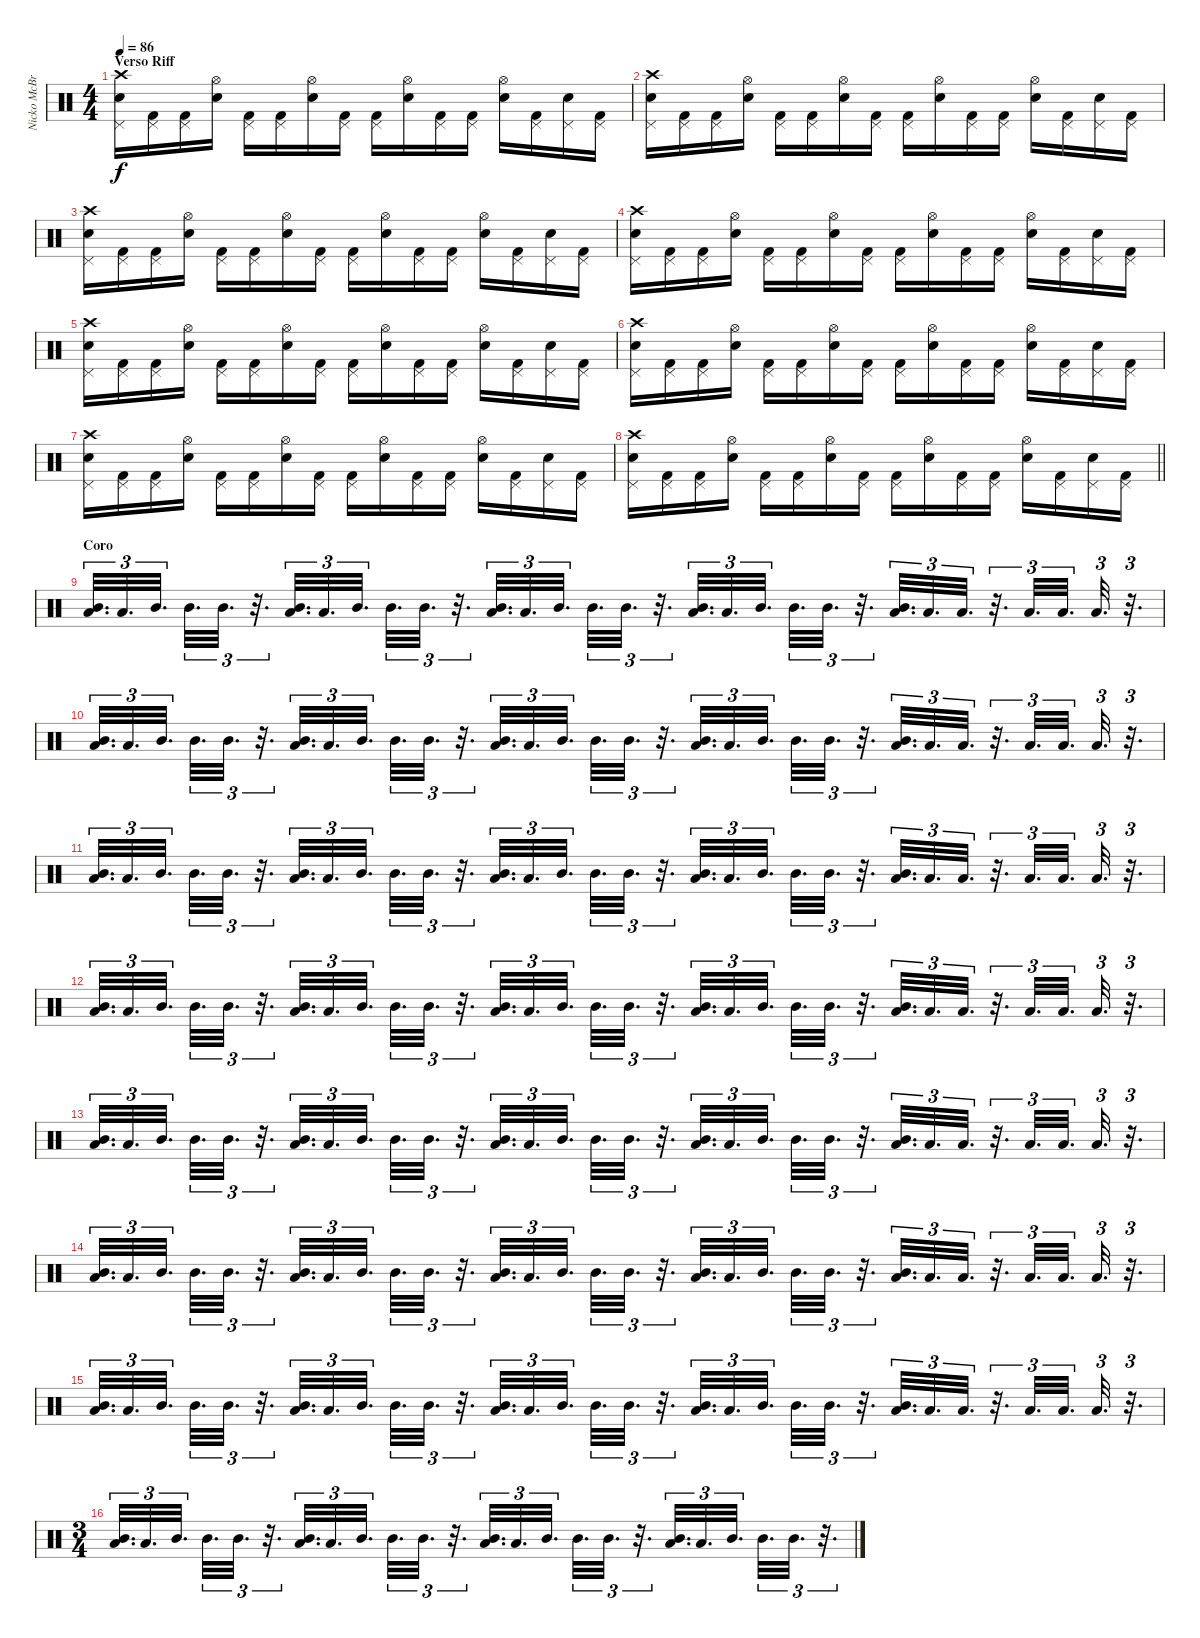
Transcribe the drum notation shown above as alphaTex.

\track ("Nicko McBrain" "Nicko McBr") {instrument percussion}
\staff {score}
\articulation defaults
\ts (4 4)
\section ("" "Verso Riff")
\tempo 86
\clef neutral
\ks c
("Snare (hit) 2" "Pedal Hi-Hat (hit)" "Crash high (hit)").16{dy f} ("Kick (hit) 2" "Pedal Hi-Hat (hit)").16 ("Kick (hit) 2" "Pedal Hi-Hat (hit)").16 ("Snare (hit) 2" "Hi-Hat (open)").16 ("Kick (hit) 2" "Pedal Hi-Hat (hit)").16 ("Kick (hit) 2" "Pedal Hi-Hat (hit)").16 ("Snare (hit) 2" "Hi-Hat (open)").16 ("Kick (hit) 2" "Pedal Hi-Hat (hit)").16 ("Kick (hit) 2" "Pedal Hi-Hat (hit)").16 ("Snare (hit) 2" "Hi-Hat (open)").16 ("Kick (hit) 2" "Pedal Hi-Hat (hit)").16 ("Kick (hit) 2" "Pedal Hi-Hat (hit)").16 ("Snare (hit) 2" "Hi-Hat (open)").16 ("Kick (hit) 2" "Pedal Hi-Hat (hit)").16 ("Snare (hit) 2" "Pedal Hi-Hat (hit)").16 ("Kick (hit) 2" "Pedal Hi-Hat (hit)").16 |
("Snare (hit) 2" "Pedal Hi-Hat (hit)" "Crash high (hit)").16 ("Kick (hit) 2" "Pedal Hi-Hat (hit)").16 ("Kick (hit) 2" "Pedal Hi-Hat (hit)").16 ("Snare (hit) 2" "Hi-Hat (open)").16 ("Kick (hit) 2" "Pedal Hi-Hat (hit)").16 ("Kick (hit) 2" "Pedal Hi-Hat (hit)").16 ("Snare (hit) 2" "Hi-Hat (open)").16 ("Kick (hit) 2" "Pedal Hi-Hat (hit)").16 ("Kick (hit) 2" "Pedal Hi-Hat (hit)").16 ("Snare (hit) 2" "Hi-Hat (open)").16 ("Kick (hit) 2" "Pedal Hi-Hat (hit)").16 ("Kick (hit) 2" "Pedal Hi-Hat (hit)").16 ("Snare (hit) 2" "Hi-Hat (open)").16 ("Kick (hit) 2" "Pedal Hi-Hat (hit)").16 ("Snare (hit) 2" "Pedal Hi-Hat (hit)").16 ("Kick (hit) 2" "Pedal Hi-Hat (hit)").16 |
("Snare (hit) 2" "Pedal Hi-Hat (hit)" "Crash high (hit)").16 ("Kick (hit) 2" "Pedal Hi-Hat (hit)").16 ("Kick (hit) 2" "Pedal Hi-Hat (hit)").16 ("Snare (hit) 2" "Hi-Hat (open)").16 ("Kick (hit) 2" "Pedal Hi-Hat (hit)").16 ("Kick (hit) 2" "Pedal Hi-Hat (hit)").16 ("Snare (hit) 2" "Hi-Hat (open)").16 ("Kick (hit) 2" "Pedal Hi-Hat (hit)").16 ("Kick (hit) 2" "Pedal Hi-Hat (hit)").16 ("Snare (hit) 2" "Hi-Hat (open)").16 ("Kick (hit) 2" "Pedal Hi-Hat (hit)").16 ("Kick (hit) 2" "Pedal Hi-Hat (hit)").16 ("Snare (hit) 2" "Hi-Hat (open)").16 ("Kick (hit) 2" "Pedal Hi-Hat (hit)").16 ("Snare (hit) 2" "Pedal Hi-Hat (hit)").16 ("Kick (hit) 2" "Pedal Hi-Hat (hit)").16 |
("Snare (hit) 2" "Pedal Hi-Hat (hit)" "Crash high (hit)").16 ("Kick (hit) 2" "Pedal Hi-Hat (hit)").16 ("Kick (hit) 2" "Pedal Hi-Hat (hit)").16 ("Snare (hit) 2" "Hi-Hat (open)").16 ("Kick (hit) 2" "Pedal Hi-Hat (hit)").16 ("Kick (hit) 2" "Pedal Hi-Hat (hit)").16 ("Snare (hit) 2" "Hi-Hat (open)").16 ("Kick (hit) 2" "Pedal Hi-Hat (hit)").16 ("Kick (hit) 2" "Pedal Hi-Hat (hit)").16 ("Snare (hit) 2" "Hi-Hat (open)").16 ("Kick (hit) 2" "Pedal Hi-Hat (hit)").16 ("Kick (hit) 2" "Pedal Hi-Hat (hit)").16 ("Snare (hit) 2" "Hi-Hat (open)").16 ("Kick (hit) 2" "Pedal Hi-Hat (hit)").16 ("Snare (hit) 2" "Pedal Hi-Hat (hit)").16 ("Kick (hit) 2" "Pedal Hi-Hat (hit)").16 |
("Snare (hit) 2" "Pedal Hi-Hat (hit)" "Crash high (hit)").16 ("Kick (hit) 2" "Pedal Hi-Hat (hit)").16 ("Kick (hit) 2" "Pedal Hi-Hat (hit)").16 ("Snare (hit) 2" "Hi-Hat (open)").16 ("Kick (hit) 2" "Pedal Hi-Hat (hit)").16 ("Kick (hit) 2" "Pedal Hi-Hat (hit)").16 ("Snare (hit) 2" "Hi-Hat (open)").16 ("Kick (hit) 2" "Pedal Hi-Hat (hit)").16 ("Kick (hit) 2" "Pedal Hi-Hat (hit)").16 ("Snare (hit) 2" "Hi-Hat (open)").16 ("Kick (hit) 2" "Pedal Hi-Hat (hit)").16 ("Kick (hit) 2" "Pedal Hi-Hat (hit)").16 ("Snare (hit) 2" "Hi-Hat (open)").16 ("Kick (hit) 2" "Pedal Hi-Hat (hit)").16 ("Snare (hit) 2" "Pedal Hi-Hat (hit)").16 ("Kick (hit) 2" "Pedal Hi-Hat (hit)").16 |
("Snare (hit) 2" "Pedal Hi-Hat (hit)" "Crash high (hit)").16 ("Kick (hit) 2" "Pedal Hi-Hat (hit)").16 ("Kick (hit) 2" "Pedal Hi-Hat (hit)").16 ("Snare (hit) 2" "Hi-Hat (open)").16 ("Kick (hit) 2" "Pedal Hi-Hat (hit)").16 ("Kick (hit) 2" "Pedal Hi-Hat (hit)").16 ("Snare (hit) 2" "Hi-Hat (open)").16 ("Kick (hit) 2" "Pedal Hi-Hat (hit)").16 ("Kick (hit) 2" "Pedal Hi-Hat (hit)").16 ("Snare (hit) 2" "Hi-Hat (open)").16 ("Kick (hit) 2" "Pedal Hi-Hat (hit)").16 ("Kick (hit) 2" "Pedal Hi-Hat (hit)").16 ("Snare (hit) 2" "Hi-Hat (open)").16 ("Kick (hit) 2" "Pedal Hi-Hat (hit)").16 ("Snare (hit) 2" "Pedal Hi-Hat (hit)").16 ("Kick (hit) 2" "Pedal Hi-Hat (hit)").16 |
("Snare (hit) 2" "Pedal Hi-Hat (hit)" "Crash high (hit)").16 ("Kick (hit) 2" "Pedal Hi-Hat (hit)").16 ("Kick (hit) 2" "Pedal Hi-Hat (hit)").16 ("Snare (hit) 2" "Hi-Hat (open)").16 ("Kick (hit) 2" "Pedal Hi-Hat (hit)").16 ("Kick (hit) 2" "Pedal Hi-Hat (hit)").16 ("Snare (hit) 2" "Hi-Hat (open)").16 ("Kick (hit) 2" "Pedal Hi-Hat (hit)").16 ("Kick (hit) 2" "Pedal Hi-Hat (hit)").16 ("Snare (hit) 2" "Hi-Hat (open)").16 ("Kick (hit) 2" "Pedal Hi-Hat (hit)").16 ("Kick (hit) 2" "Pedal Hi-Hat (hit)").16 ("Snare (hit) 2" "Hi-Hat (open)").16 ("Kick (hit) 2" "Pedal Hi-Hat (hit)").16 ("Snare (hit) 2" "Pedal Hi-Hat (hit)").16 ("Kick (hit) 2" "Pedal Hi-Hat (hit)").16 |
\barLineRight lightlight
("Snare (hit) 2" "Pedal Hi-Hat (hit)" "Crash high (hit)").16 ("Kick (hit) 2" "Pedal Hi-Hat (hit)").16 ("Kick (hit) 2" "Pedal Hi-Hat (hit)").16 ("Snare (hit) 2" "Hi-Hat (open)").16 ("Kick (hit) 2" "Pedal Hi-Hat (hit)").16 ("Kick (hit) 2" "Pedal Hi-Hat (hit)").16 ("Snare (hit) 2" "Hi-Hat (open)").16 ("Kick (hit) 2" "Pedal Hi-Hat (hit)").16 ("Kick (hit) 2" "Pedal Hi-Hat (hit)").16 ("Snare (hit) 2" "Hi-Hat (open)").16 ("Kick (hit) 2" "Pedal Hi-Hat (hit)").16 ("Kick (hit) 2" "Pedal Hi-Hat (hit)").16 ("Snare (hit) 2" "Hi-Hat (open)").16 ("Kick (hit) 2" "Pedal Hi-Hat (hit)").16 ("Snare (hit) 2" "Pedal Hi-Hat (hit)").16 ("Kick (hit) 2" "Pedal Hi-Hat (hit)").16 |
\section ("" "Coro")
("Mid Tom (hit)" "Low Tom (hit)").32{d tu (3 2)} "Low Tom (hit)".32{d tu (3 2)} "Mid Tom (hit)".32{d tu (3 2)} "Mid Tom (hit)".32{d tu (3 2)} "Mid Tom (hit)".32{d tu (3 2)} r.32{d tu (3 2)} ("Mid Tom (hit)" "Low Tom (hit)").32{d tu (3 2)} "Low Tom (hit)".32{d tu (3 2)} "Mid Tom (hit)".32{d tu (3 2)} "Mid Tom (hit)".32{d tu (3 2)} "Mid Tom (hit)".32{d tu (3 2)} r.32{d tu (3 2)} ("Mid Tom (hit)" "Low Tom (hit)").32{d tu (3 2)} "Low Tom (hit)".32{d tu (3 2)} "Mid Tom (hit)".32{d tu (3 2)} "Mid Tom (hit)".32{d tu (3 2)} "Mid Tom (hit)".32{d tu (3 2)} r.32{d tu (3 2)} ("Mid Tom (hit)" "Low Tom (hit)").32{d tu (3 2)} "Low Tom (hit)".32{d tu (3 2)} "Mid Tom (hit)".32{d tu (3 2)} "Mid Tom (hit)".32{d tu (3 2)} "Mid Tom (hit)".32{d tu (3 2)} r.32{d tu (3 2)} ("Mid Tom (hit)" "Low Tom (hit)").32{d tu (3 2)} "Low Tom (hit)".32{d tu (3 2)} "Low Tom (hit)".32{d tu (3 2)} r.32{d tu (3 2)} "Low Tom (hit)".32{d tu (3 2)} "Low Tom (hit)".32{d tu (3 2)} "Low Tom (hit)".32{d tu (3 2)} r.32{d tu (3 2)} |
("Mid Tom (hit)" "Low Tom (hit)").32{d tu (3 2)} "Low Tom (hit)".32{d tu (3 2)} "Mid Tom (hit)".32{d tu (3 2)} "Mid Tom (hit)".32{d tu (3 2)} "Mid Tom (hit)".32{d tu (3 2)} r.32{d tu (3 2)} ("Mid Tom (hit)" "Low Tom (hit)").32{d tu (3 2)} "Low Tom (hit)".32{d tu (3 2)} "Mid Tom (hit)".32{d tu (3 2)} "Mid Tom (hit)".32{d tu (3 2)} "Mid Tom (hit)".32{d tu (3 2)} r.32{d tu (3 2)} ("Mid Tom (hit)" "Low Tom (hit)").32{d tu (3 2)} "Low Tom (hit)".32{d tu (3 2)} "Mid Tom (hit)".32{d tu (3 2)} "Mid Tom (hit)".32{d tu (3 2)} "Mid Tom (hit)".32{d tu (3 2)} r.32{d tu (3 2)} ("Mid Tom (hit)" "Low Tom (hit)").32{d tu (3 2)} "Low Tom (hit)".32{d tu (3 2)} "Mid Tom (hit)".32{d tu (3 2)} "Mid Tom (hit)".32{d tu (3 2)} "Mid Tom (hit)".32{d tu (3 2)} r.32{d tu (3 2)} ("Mid Tom (hit)" "Low Tom (hit)").32{d tu (3 2)} "Low Tom (hit)".32{d tu (3 2)} "Low Tom (hit)".32{d tu (3 2)} r.32{d tu (3 2)} "Low Tom (hit)".32{d tu (3 2)} "Low Tom (hit)".32{d tu (3 2)} "Low Tom (hit)".32{d tu (3 2)} r.32{d tu (3 2)} |
("Mid Tom (hit)" "Low Tom (hit)").32{d tu (3 2)} "Low Tom (hit)".32{d tu (3 2)} "Mid Tom (hit)".32{d tu (3 2)} "Mid Tom (hit)".32{d tu (3 2)} "Mid Tom (hit)".32{d tu (3 2)} r.32{d tu (3 2)} ("Mid Tom (hit)" "Low Tom (hit)").32{d tu (3 2)} "Low Tom (hit)".32{d tu (3 2)} "Mid Tom (hit)".32{d tu (3 2)} "Mid Tom (hit)".32{d tu (3 2)} "Mid Tom (hit)".32{d tu (3 2)} r.32{d tu (3 2)} ("Mid Tom (hit)" "Low Tom (hit)").32{d tu (3 2)} "Low Tom (hit)".32{d tu (3 2)} "Mid Tom (hit)".32{d tu (3 2)} "Mid Tom (hit)".32{d tu (3 2)} "Mid Tom (hit)".32{d tu (3 2)} r.32{d tu (3 2)} ("Mid Tom (hit)" "Low Tom (hit)").32{d tu (3 2)} "Low Tom (hit)".32{d tu (3 2)} "Mid Tom (hit)".32{d tu (3 2)} "Mid Tom (hit)".32{d tu (3 2)} "Mid Tom (hit)".32{d tu (3 2)} r.32{d tu (3 2)} ("Mid Tom (hit)" "Low Tom (hit)").32{d tu (3 2)} "Low Tom (hit)".32{d tu (3 2)} "Low Tom (hit)".32{d tu (3 2)} r.32{d tu (3 2)} "Low Tom (hit)".32{d tu (3 2)} "Low Tom (hit)".32{d tu (3 2)} "Low Tom (hit)".32{d tu (3 2)} r.32{d tu (3 2)} |
("Mid Tom (hit)" "Low Tom (hit)").32{d tu (3 2)} "Low Tom (hit)".32{d tu (3 2)} "Mid Tom (hit)".32{d tu (3 2)} "Mid Tom (hit)".32{d tu (3 2)} "Mid Tom (hit)".32{d tu (3 2)} r.32{d tu (3 2)} ("Mid Tom (hit)" "Low Tom (hit)").32{d tu (3 2)} "Low Tom (hit)".32{d tu (3 2)} "Mid Tom (hit)".32{d tu (3 2)} "Mid Tom (hit)".32{d tu (3 2)} "Mid Tom (hit)".32{d tu (3 2)} r.32{d tu (3 2)} ("Mid Tom (hit)" "Low Tom (hit)").32{d tu (3 2)} "Low Tom (hit)".32{d tu (3 2)} "Mid Tom (hit)".32{d tu (3 2)} "Mid Tom (hit)".32{d tu (3 2)} "Mid Tom (hit)".32{d tu (3 2)} r.32{d tu (3 2)} ("Mid Tom (hit)" "Low Tom (hit)").32{d tu (3 2)} "Low Tom (hit)".32{d tu (3 2)} "Mid Tom (hit)".32{d tu (3 2)} "Mid Tom (hit)".32{d tu (3 2)} "Mid Tom (hit)".32{d tu (3 2)} r.32{d tu (3 2)} ("Mid Tom (hit)" "Low Tom (hit)").32{d tu (3 2)} "Low Tom (hit)".32{d tu (3 2)} "Low Tom (hit)".32{d tu (3 2)} r.32{d tu (3 2)} "Low Tom (hit)".32{d tu (3 2)} "Low Tom (hit)".32{d tu (3 2)} "Low Tom (hit)".32{d tu (3 2)} r.32{d tu (3 2)} |
("Mid Tom (hit)" "Low Tom (hit)").32{d tu (3 2)} "Low Tom (hit)".32{d tu (3 2)} "Mid Tom (hit)".32{d tu (3 2)} "Mid Tom (hit)".32{d tu (3 2)} "Mid Tom (hit)".32{d tu (3 2)} r.32{d tu (3 2)} ("Mid Tom (hit)" "Low Tom (hit)").32{d tu (3 2)} "Low Tom (hit)".32{d tu (3 2)} "Mid Tom (hit)".32{d tu (3 2)} "Mid Tom (hit)".32{d tu (3 2)} "Mid Tom (hit)".32{d tu (3 2)} r.32{d tu (3 2)} ("Mid Tom (hit)" "Low Tom (hit)").32{d tu (3 2)} "Low Tom (hit)".32{d tu (3 2)} "Mid Tom (hit)".32{d tu (3 2)} "Mid Tom (hit)".32{d tu (3 2)} "Mid Tom (hit)".32{d tu (3 2)} r.32{d tu (3 2)} ("Mid Tom (hit)" "Low Tom (hit)").32{d tu (3 2)} "Low Tom (hit)".32{d tu (3 2)} "Mid Tom (hit)".32{d tu (3 2)} "Mid Tom (hit)".32{d tu (3 2)} "Mid Tom (hit)".32{d tu (3 2)} r.32{d tu (3 2)} ("Mid Tom (hit)" "Low Tom (hit)").32{d tu (3 2)} "Low Tom (hit)".32{d tu (3 2)} "Low Tom (hit)".32{d tu (3 2)} r.32{d tu (3 2)} "Low Tom (hit)".32{d tu (3 2)} "Low Tom (hit)".32{d tu (3 2)} "Low Tom (hit)".32{d tu (3 2)} r.32{d tu (3 2)} |
("Mid Tom (hit)" "Low Tom (hit)").32{d tu (3 2)} "Low Tom (hit)".32{d tu (3 2)} "Mid Tom (hit)".32{d tu (3 2)} "Mid Tom (hit)".32{d tu (3 2)} "Mid Tom (hit)".32{d tu (3 2)} r.32{d tu (3 2)} ("Mid Tom (hit)" "Low Tom (hit)").32{d tu (3 2)} "Low Tom (hit)".32{d tu (3 2)} "Mid Tom (hit)".32{d tu (3 2)} "Mid Tom (hit)".32{d tu (3 2)} "Mid Tom (hit)".32{d tu (3 2)} r.32{d tu (3 2)} ("Mid Tom (hit)" "Low Tom (hit)").32{d tu (3 2)} "Low Tom (hit)".32{d tu (3 2)} "Mid Tom (hit)".32{d tu (3 2)} "Mid Tom (hit)".32{d tu (3 2)} "Mid Tom (hit)".32{d tu (3 2)} r.32{d tu (3 2)} ("Mid Tom (hit)" "Low Tom (hit)").32{d tu (3 2)} "Low Tom (hit)".32{d tu (3 2)} "Mid Tom (hit)".32{d tu (3 2)} "Mid Tom (hit)".32{d tu (3 2)} "Mid Tom (hit)".32{d tu (3 2)} r.32{d tu (3 2)} ("Mid Tom (hit)" "Low Tom (hit)").32{d tu (3 2)} "Low Tom (hit)".32{d tu (3 2)} "Low Tom (hit)".32{d tu (3 2)} r.32{d tu (3 2)} "Low Tom (hit)".32{d tu (3 2)} "Low Tom (hit)".32{d tu (3 2)} "Low Tom (hit)".32{d tu (3 2)} r.32{d tu (3 2)} |
("Mid Tom (hit)" "Low Tom (hit)").32{d tu (3 2)} "Low Tom (hit)".32{d tu (3 2)} "Mid Tom (hit)".32{d tu (3 2)} "Mid Tom (hit)".32{d tu (3 2)} "Mid Tom (hit)".32{d tu (3 2)} r.32{d tu (3 2)} ("Mid Tom (hit)" "Low Tom (hit)").32{d tu (3 2)} "Low Tom (hit)".32{d tu (3 2)} "Mid Tom (hit)".32{d tu (3 2)} "Mid Tom (hit)".32{d tu (3 2)} "Mid Tom (hit)".32{d tu (3 2)} r.32{d tu (3 2)} ("Mid Tom (hit)" "Low Tom (hit)").32{d tu (3 2)} "Low Tom (hit)".32{d tu (3 2)} "Mid Tom (hit)".32{d tu (3 2)} "Mid Tom (hit)".32{d tu (3 2)} "Mid Tom (hit)".32{d tu (3 2)} r.32{d tu (3 2)} ("Mid Tom (hit)" "Low Tom (hit)").32{d tu (3 2)} "Low Tom (hit)".32{d tu (3 2)} "Mid Tom (hit)".32{d tu (3 2)} "Mid Tom (hit)".32{d tu (3 2)} "Mid Tom (hit)".32{d tu (3 2)} r.32{d tu (3 2)} ("Mid Tom (hit)" "Low Tom (hit)").32{d tu (3 2)} "Low Tom (hit)".32{d tu (3 2)} "Low Tom (hit)".32{d tu (3 2)} r.32{d tu (3 2)} "Low Tom (hit)".32{d tu (3 2)} "Low Tom (hit)".32{d tu (3 2)} "Low Tom (hit)".32{d tu (3 2)} r.32{d tu (3 2)} |
\ts (3 4)
("Mid Tom (hit)" "Low Tom (hit)").32{d tu (3 2)} "Low Tom (hit)".32{d tu (3 2)} "Mid Tom (hit)".32{d tu (3 2)} "Mid Tom (hit)".32{d tu (3 2)} "Mid Tom (hit)".32{d tu (3 2)} r.32{d tu (3 2)} ("Mid Tom (hit)" "Low Tom (hit)").32{d tu (3 2)} "Low Tom (hit)".32{d tu (3 2)} "Mid Tom (hit)".32{d tu (3 2)} "Mid Tom (hit)".32{d tu (3 2)} "Mid Tom (hit)".32{d tu (3 2)} r.32{d tu (3 2)} ("Mid Tom (hit)" "Low Tom (hit)").32{d tu (3 2)} "Low Tom (hit)".32{d tu (3 2)} "Mid Tom (hit)".32{d tu (3 2)} "Mid Tom (hit)".32{d tu (3 2)} "Mid Tom (hit)".32{d tu (3 2)} r.32{d tu (3 2)} ("Mid Tom (hit)" "Low Tom (hit)").32{d tu (3 2)} "Low Tom (hit)".32{d tu (3 2)} "Mid Tom (hit)".32{d tu (3 2)} "Mid Tom (hit)".32{d tu (3 2)} "Mid Tom (hit)".32{d tu (3 2)} r.32{d tu (3 2)}
